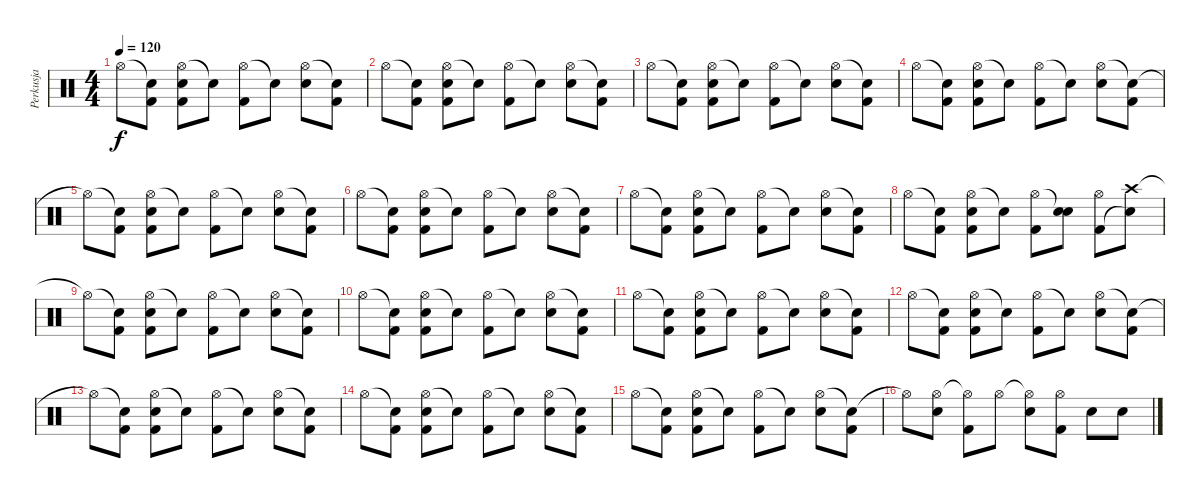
\track ("Perkusja" "Perkusja") {instrument percussion}
\staff {score}
\articulation defaults
\ts (4 4)
\tempo 120
\clef neutral
\ks c "Hi-Hat (open)"{t}.8{dy f}
("Snare (hit)"{t} "Kick (hit) 2").8 ("Hi-Hat (open)" "Electric Snare (hit)" "Kick (hit) 2").8 "Snare (hit)"{t}.8 ("Hi-Hat (open)" "Kick (hit) 2").8 "Snare (hit)"{t}.8 ("Hi-Hat (open)" "Electric Snare (hit)").8 ("Snare (hit)"{t} "Kick (hit) 2").8 |
"Hi-Hat (open)".8 ("Snare (hit)"{t} "Kick (hit) 2").8 ("Hi-Hat (open)" "Electric Snare (hit)" "Kick (hit) 2").8 "Snare (hit)"{t}.8 ("Hi-Hat (open)" "Kick (hit) 2").8 "Snare (hit)"{t}.8 ("Hi-Hat (open)" "Electric Snare (hit)").8 ("Snare (hit)"{t} "Kick (hit) 2").8 |
"Hi-Hat (open)".8 ("Snare (hit)"{t} "Kick (hit) 2").8 ("Hi-Hat (open)" "Electric Snare (hit)" "Kick (hit) 2").8 "Snare (hit)"{t}.8 ("Hi-Hat (open)" "Kick (hit) 2").8 "Snare (hit)"{t}.8 ("Hi-Hat (open)" "Electric Snare (hit)").8 ("Snare (hit)"{t} "Kick (hit) 2").8 |
"Hi-Hat (open)".8 ("Snare (hit)"{t} "Kick (hit) 2").8 ("Hi-Hat (open)" "Electric Snare (hit)" "Kick (hit) 2").8 "Snare (hit)"{t}.8 ("Hi-Hat (open)" "Kick (hit) 2").8 "Snare (hit)"{t}.8 ("Hi-Hat (open)" "Electric Snare (hit)").8 ("Snare (hit)"{t} "Kick (hit) 2").8 |
"Hi-Hat (open)"{t}.8 ("Snare (hit)"{t} "Kick (hit) 2").8 ("Hi-Hat (open)" "Electric Snare (hit)" "Kick (hit) 2").8 "Snare (hit)"{t}.8 ("Hi-Hat (open)" "Kick (hit) 2").8 "Snare (hit)"{t}.8 ("Hi-Hat (open)" "Electric Snare (hit)").8 ("Snare (hit)"{t} "Kick (hit) 2").8 |
"Hi-Hat (open)".8 ("Snare (hit)"{t} "Kick (hit) 2").8 ("Hi-Hat (open)" "Electric Snare (hit)" "Kick (hit) 2").8 "Snare (hit)"{t}.8 ("Hi-Hat (open)" "Kick (hit) 2").8 "Snare (hit)"{t}.8 ("Hi-Hat (open)" "Electric Snare (hit)").8 ("Snare (hit)"{t} "Kick (hit) 2").8 |
"Hi-Hat (open)".8 ("Snare (hit)"{t} "Kick (hit) 2").8 ("Hi-Hat (open)" "Electric Snare (hit)" "Kick (hit) 2").8 "Snare (hit)"{t}.8 ("Hi-Hat (open)" "Kick (hit) 2").8 "Snare (hit)"{t}.8 ("Hi-Hat (open)" "Electric Snare (hit)").8 ("Snare (hit)"{t} "Kick (hit) 2").8 |
"Hi-Hat (open)".8 ("Snare (hit)"{t} "Kick (hit) 2").8 ("Hi-Hat (open)" "Electric Snare (hit)" "Kick (hit) 2").8 "Snare (hit)"{t}.8 ("Hi-Hat (open)" "Kick (hit) 2").8 ("Snare (hit)"{t} "Electric Snare (hit)").8 ("Hi-Hat (open)" "Kick (hit) 2").8 ("Crash high (hit)" "Snare (hit)"{t}).8 |
"Hi-Hat (open)"{t}.8 ("Snare (hit)"{t} "Kick (hit) 2").8 ("Hi-Hat (open)" "Electric Snare (hit)" "Kick (hit) 2").8 "Snare (hit)"{t}.8 ("Hi-Hat (open)" "Kick (hit) 2").8 "Snare (hit)"{t}.8 ("Hi-Hat (open)" "Electric Snare (hit)").8 ("Snare (hit)"{t} "Kick (hit) 2").8 |
"Hi-Hat (open)".8 ("Snare (hit)"{t} "Kick (hit) 2").8 ("Hi-Hat (open)" "Electric Snare (hit)" "Kick (hit) 2").8 "Snare (hit)"{t}.8 ("Hi-Hat (open)" "Kick (hit) 2").8 "Snare (hit)"{t}.8 ("Hi-Hat (open)" "Electric Snare (hit)").8 ("Snare (hit)"{t} "Kick (hit) 2").8 |
"Hi-Hat (open)".8 ("Snare (hit)"{t} "Kick (hit) 2").8 ("Hi-Hat (open)" "Electric Snare (hit)" "Kick (hit) 2").8 "Snare (hit)"{t}.8 ("Hi-Hat (open)" "Kick (hit) 2").8 "Snare (hit)"{t}.8 ("Hi-Hat (open)" "Electric Snare (hit)").8 ("Snare (hit)"{t} "Kick (hit) 2").8 |
"Hi-Hat (open)".8 ("Snare (hit)"{t} "Kick (hit) 2").8 ("Hi-Hat (open)" "Electric Snare (hit)" "Kick (hit) 2").8 "Snare (hit)"{t}.8 ("Hi-Hat (open)" "Kick (hit) 2").8 "Snare (hit)"{t}.8 ("Hi-Hat (open)" "Electric Snare (hit)").8 ("Snare (hit)"{t} "Kick (hit) 2").8 |
"Hi-Hat (open)"{t}.8 ("Snare (hit)"{t} "Kick (hit) 2").8 ("Hi-Hat (open)" "Electric Snare (hit)" "Kick (hit) 2").8 "Snare (hit)"{t}.8 ("Hi-Hat (open)" "Kick (hit) 2").8 "Snare (hit)"{t}.8 ("Hi-Hat (open)" "Electric Snare (hit)").8 ("Snare (hit)"{t} "Kick (hit) 2").8 |
"Hi-Hat (open)".8 ("Snare (hit)"{t} "Kick (hit) 2").8 ("Hi-Hat (open)" "Electric Snare (hit)" "Kick (hit) 2").8 "Snare (hit)"{t}.8 ("Hi-Hat (open)" "Kick (hit) 2").8 "Snare (hit)"{t}.8 ("Hi-Hat (open)" "Electric Snare (hit)").8 ("Snare (hit)"{t} "Kick (hit) 2").8 |
"Hi-Hat (open)".8 ("Snare (hit)"{t} "Kick (hit) 2").8 ("Hi-Hat (open)" "Electric Snare (hit)" "Kick (hit) 2").8 "Snare (hit)"{t}.8 ("Hi-Hat (open)" "Kick (hit) 2").8 "Snare (hit)"{t}.8 ("Hi-Hat (open)" "Electric Snare (hit)").8 ("Snare (hit)"{t} "Kick (hit) 2").8 |
"Hi-Hat (open)"{t}.8 ("Hi-Hat (open)" "Electric Snare (hit)").8 ("Hi-Hat (open)"{t} "Kick (hit) 2").8 "Hi-Hat (open)".8 ("Hi-Hat (open)"{t} "Electric Snare (hit)").8 ("Hi-Hat (open)" "Kick (hit) 2").8 "Electric Snare (hit)".8 "Electric Snare (hit)".8
